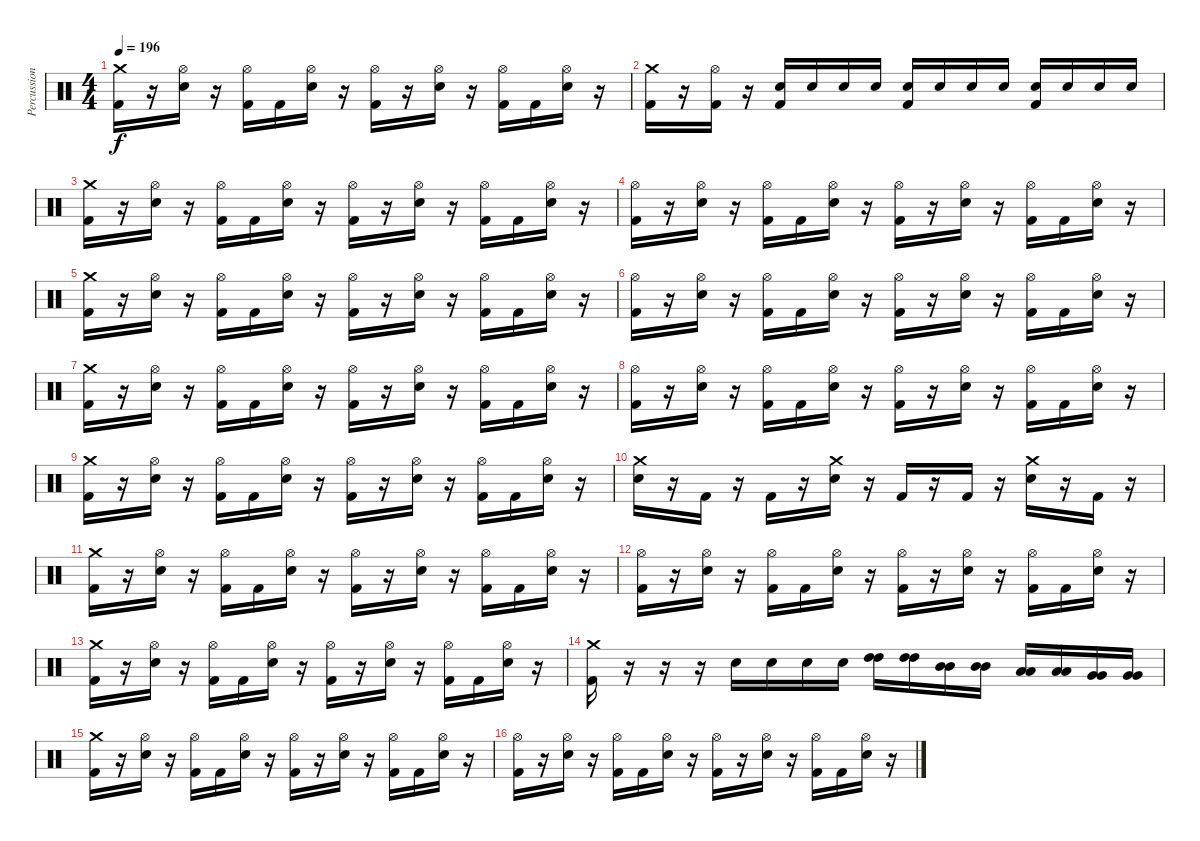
\track ("Percussion" "Percussion") {instrument percussion}
\staff {score}
\articulation defaults
\ts (4 4)
\tempo 196
\clef neutral
\ks c
("Crash medium (hit)" "Kick (hit) 2").16{dy f} r.16 ("Hi-Hat (open)" "Electric Snare (hit)").16 r.16 ("Hi-Hat (open)" "Kick (hit) 2").16 "Kick (hit) 2".16 ("Hi-Hat (open)" "Electric Snare (hit)").16 r.16 ("Hi-Hat (open)" "Kick (hit) 2").16 r.16 ("Hi-Hat (open)" "Electric Snare (hit)").16 r.16 ("Hi-Hat (open)" "Kick (hit) 2").16 "Kick (hit) 2".16 ("Hi-Hat (open)" "Electric Snare (hit)").16 r.16 |
("Crash medium (hit)" "Kick (hit) 2").16 r.16 ("Hi-Hat (open)" "Kick (hit) 2").16 r.16 ("Kick (hit) 2" "Electric Snare (hit)").16 "Electric Snare (hit)".16 "Electric Snare (hit)".16 "Electric Snare (hit)".16 ("Kick (hit) 2" "Electric Snare (hit)").16 "Electric Snare (hit)".16 "Electric Snare (hit)".16 "Electric Snare (hit)".16 ("Kick (hit) 2" "Electric Snare (hit)").16 "Electric Snare (hit)".16 "Electric Snare (hit)".16 "Electric Snare (hit)".16 |
("Crash medium (hit)" "Kick (hit) 2").16 r.16 ("Hi-Hat (open)" "Electric Snare (hit)").16 r.16 ("Hi-Hat (open)" "Kick (hit) 2").16 "Kick (hit) 2".16 ("Hi-Hat (open)" "Electric Snare (hit)").16 r.16 ("Hi-Hat (open)" "Kick (hit) 2").16 r.16 ("Hi-Hat (open)" "Electric Snare (hit)").16 r.16 ("Hi-Hat (open)" "Kick (hit) 2").16 "Kick (hit) 2".16 ("Hi-Hat (open)" "Electric Snare (hit)").16 r.16 |
("Hi-Hat (open)" "Kick (hit) 2").16 r.16 ("Hi-Hat (open)" "Electric Snare (hit)").16 r.16 ("Hi-Hat (open)" "Kick (hit) 2").16 "Kick (hit) 2".16 ("Hi-Hat (open)" "Electric Snare (hit)").16 r.16 ("Hi-Hat (open)" "Kick (hit) 2").16 r.16 ("Hi-Hat (open)" "Electric Snare (hit)").16 r.16 ("Hi-Hat (open)" "Kick (hit) 2").16 "Kick (hit) 2".16 ("Hi-Hat (open)" "Electric Snare (hit)").16 r.16 |
("Crash medium (hit)" "Kick (hit) 2").16 r.16 ("Hi-Hat (open)" "Electric Snare (hit)").16 r.16 ("Hi-Hat (open)" "Kick (hit) 2").16 "Kick (hit) 2".16 ("Hi-Hat (open)" "Electric Snare (hit)").16 r.16 ("Hi-Hat (open)" "Kick (hit) 2").16 r.16 ("Hi-Hat (open)" "Electric Snare (hit)").16 r.16 ("Hi-Hat (open)" "Kick (hit) 2").16 "Kick (hit) 2".16 ("Hi-Hat (open)" "Electric Snare (hit)").16 r.16 |
("Hi-Hat (open)" "Kick (hit) 2").16 r.16 ("Hi-Hat (open)" "Electric Snare (hit)").16 r.16 ("Hi-Hat (open)" "Kick (hit) 2").16 "Kick (hit) 2".16 ("Hi-Hat (open)" "Electric Snare (hit)").16 r.16 ("Hi-Hat (open)" "Kick (hit) 2").16 r.16 ("Hi-Hat (open)" "Electric Snare (hit)").16 r.16 ("Hi-Hat (open)" "Kick (hit) 2").16 "Kick (hit) 2".16 ("Hi-Hat (open)" "Electric Snare (hit)").16 r.16 |
("Crash medium (hit)" "Kick (hit) 2").16 r.16 ("Hi-Hat (open)" "Electric Snare (hit)").16 r.16 ("Hi-Hat (open)" "Kick (hit) 2").16 "Kick (hit) 2".16 ("Hi-Hat (open)" "Electric Snare (hit)").16 r.16 ("Hi-Hat (open)" "Kick (hit) 2").16 r.16 ("Hi-Hat (open)" "Electric Snare (hit)").16 r.16 ("Hi-Hat (open)" "Kick (hit) 2").16 "Kick (hit) 2".16 ("Hi-Hat (open)" "Electric Snare (hit)").16 r.16 |
("Hi-Hat (open)" "Kick (hit) 2").16 r.16 ("Hi-Hat (open)" "Electric Snare (hit)").16 r.16 ("Hi-Hat (open)" "Kick (hit) 2").16 "Kick (hit) 2".16 ("Hi-Hat (open)" "Electric Snare (hit)").16 r.16 ("Hi-Hat (open)" "Kick (hit) 2").16 r.16 ("Hi-Hat (open)" "Electric Snare (hit)").16 r.16 ("Hi-Hat (open)" "Kick (hit) 2").16 "Kick (hit) 2".16 ("Hi-Hat (open)" "Electric Snare (hit)").16 r.16 |
("Crash medium (hit)" "Kick (hit) 2").16 r.16 ("Hi-Hat (open)" "Electric Snare (hit)").16 r.16 ("Hi-Hat (open)" "Kick (hit) 2").16 "Kick (hit) 2".16 ("Hi-Hat (open)" "Electric Snare (hit)").16 r.16 ("Hi-Hat (open)" "Kick (hit) 2").16 r.16 ("Hi-Hat (open)" "Electric Snare (hit)").16 r.16 ("Hi-Hat (open)" "Kick (hit) 2").16 "Kick (hit) 2".16 ("Hi-Hat (open)" "Electric Snare (hit)").16 r.16 |
("Crash medium (hit)" "Electric Snare (hit)").16 r.16 "Kick (hit) 2".16 r.16 "Kick (hit) 2".16 r.16 ("Crash medium (hit)" "Electric Snare (hit)").16 r.16 "Kick (hit) 2".16 r.16 "Kick (hit) 2".16 r.16 ("Crash medium (hit)" "Electric Snare (hit)").16 r.16 "Kick (hit) 2".16 r.16 |
("Crash medium (hit)" "Kick (hit) 2").16 r.16 ("Hi-Hat (open)" "Electric Snare (hit)").16 r.16 ("Hi-Hat (open)" "Kick (hit) 2").16 "Kick (hit) 2".16 ("Hi-Hat (open)" "Electric Snare (hit)").16 r.16 ("Hi-Hat (open)" "Kick (hit) 2").16 r.16 ("Hi-Hat (open)" "Electric Snare (hit)").16 r.16 ("Hi-Hat (open)" "Kick (hit) 2").16 "Kick (hit) 2".16 ("Hi-Hat (open)" "Electric Snare (hit)").16 r.16 |
("Hi-Hat (open)" "Kick (hit) 2").16 r.16 ("Hi-Hat (open)" "Electric Snare (hit)").16 r.16 ("Hi-Hat (open)" "Kick (hit) 2").16 "Kick (hit) 2".16 ("Hi-Hat (open)" "Electric Snare (hit)").16 r.16 ("Hi-Hat (open)" "Kick (hit) 2").16 r.16 ("Hi-Hat (open)" "Electric Snare (hit)").16 r.16 ("Hi-Hat (open)" "Kick (hit) 2").16 "Kick (hit) 2".16 ("Hi-Hat (open)" "Electric Snare (hit)").16 r.16 |
("Crash medium (hit)" "Kick (hit) 2").16 r.16 ("Hi-Hat (open)" "Electric Snare (hit)").16 r.16 ("Hi-Hat (open)" "Kick (hit) 2").16 "Kick (hit) 2".16 ("Hi-Hat (open)" "Electric Snare (hit)").16 r.16 ("Hi-Hat (open)" "Kick (hit) 2").16 r.16 ("Hi-Hat (open)" "Electric Snare (hit)").16 r.16 ("Hi-Hat (open)" "Kick (hit) 2").16 "Kick (hit) 2".16 ("Hi-Hat (open)" "Electric Snare (hit)").16 r.16 |
("Crash medium (hit)" "Kick (hit) 2").16 r.16 r.16 r.16 "Electric Snare (hit)".16 "Electric Snare (hit)".16 "Electric Snare (hit)".16 "Electric Snare (hit)".16 ("High Tom (hit)" "High Tom (hit)").16 ("High Tom (hit)" "High Tom (hit)").16 ("Mid Tom (hit)" "Mid Tom (hit)").16 ("Mid Tom (hit)" "Mid Tom (hit)").16 ("Low Tom (hit)" "Low Tom (hit)").16 ("Low Tom (hit)" "Low Tom (hit)").16 ("Very Low Tom (hit)" "Very Low Tom (hit)").16 ("Very Low Tom (hit)" "Very Low Tom (hit)").16 |
("Crash medium (hit)" "Kick (hit) 2").16 r.16 ("Hi-Hat (open)" "Electric Snare (hit)").16 r.16 ("Hi-Hat (open)" "Kick (hit) 2").16 "Kick (hit) 2".16 ("Hi-Hat (open)" "Electric Snare (hit)").16 r.16 ("Hi-Hat (open)" "Kick (hit) 2").16 r.16 ("Hi-Hat (open)" "Electric Snare (hit)").16 r.16 ("Hi-Hat (open)" "Kick (hit) 2").16 "Kick (hit) 2".16 ("Hi-Hat (open)" "Electric Snare (hit)").16 r.16 |
("Hi-Hat (open)" "Kick (hit) 2").16 r.16 ("Hi-Hat (open)" "Electric Snare (hit)").16 r.16 ("Hi-Hat (open)" "Kick (hit) 2").16 "Kick (hit) 2".16 ("Hi-Hat (open)" "Electric Snare (hit)").16 r.16 ("Hi-Hat (open)" "Kick (hit) 2").16 r.16 ("Hi-Hat (open)" "Electric Snare (hit)").16 r.16 ("Hi-Hat (open)" "Kick (hit) 2").16 "Kick (hit) 2".16 ("Hi-Hat (open)" "Electric Snare (hit)").16 r.16
